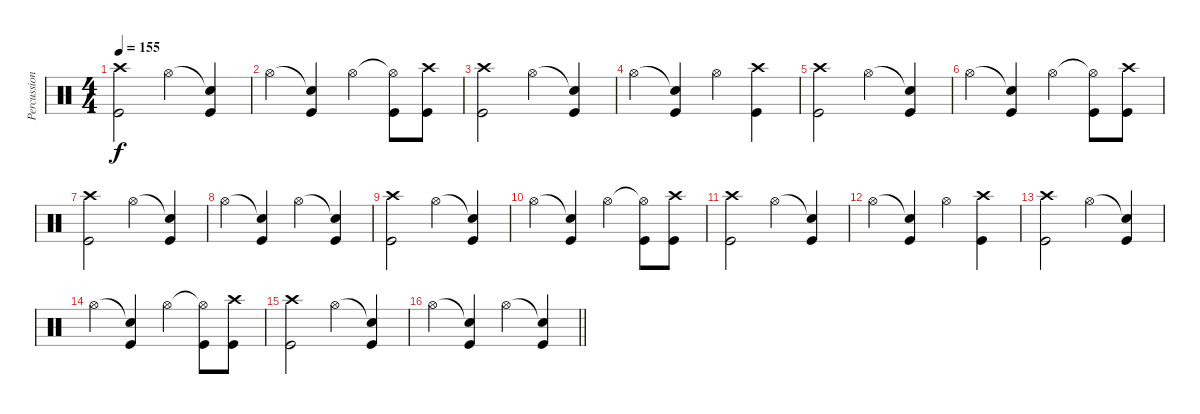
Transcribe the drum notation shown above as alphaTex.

\track ("Percussions" "Percussion") {instrument percussion}
\staff {score}
\articulation defaults
\ts (4 4)
\tempo 155
\clef neutral
\ks c
("Crash high (hit)" "Kick (hit)").2{dy f} "Hi-Hat (open)".4 ("Snare (hit)"{t} "Kick (hit)").4 |
"Hi-Hat (open)".4 ("Snare (hit)"{t} "Kick (hit)").4 "Hi-Hat (open)".4 ("Hi-Hat (open)"{t} "Kick (hit)").8 ("Crash high (hit)" "Kick (hit)").8 |
("Crash high (hit)" "Kick (hit)").2 "Hi-Hat (open)".4 ("Snare (hit)"{t} "Kick (hit)").4 |
"Hi-Hat (open)".4 ("Snare (hit)"{t} "Kick (hit)").4 "Hi-Hat (open)".4 ("Crash high (hit)" "Kick (hit)").4 |
("Crash high (hit)" "Kick (hit)").2 "Hi-Hat (open)".4 ("Snare (hit)"{t} "Kick (hit)").4 |
"Hi-Hat (open)".4 ("Snare (hit)"{t} "Kick (hit)").4 "Hi-Hat (open)".4 ("Hi-Hat (open)"{t} "Kick (hit)").8 ("Crash high (hit)" "Kick (hit)").8 |
("Crash high (hit)" "Kick (hit)").2 "Hi-Hat (open)".4 ("Snare (hit)"{t} "Kick (hit)").4 |
"Hi-Hat (open)".4 ("Snare (hit)"{t} "Kick (hit)").4 "Hi-Hat (open)".4 ("Snare (hit)"{t} "Kick (hit)").4 |
("Crash high (hit)" "Kick (hit)").2 "Hi-Hat (open)".4 ("Snare (hit)"{t} "Kick (hit)").4 |
"Hi-Hat (open)".4 ("Snare (hit)"{t} "Kick (hit)").4 "Hi-Hat (open)".4 ("Hi-Hat (open)"{t} "Kick (hit)").8 ("Crash high (hit)" "Kick (hit)").8 |
("Crash high (hit)" "Kick (hit)").2 "Hi-Hat (open)".4 ("Snare (hit)"{t} "Kick (hit)").4 |
"Hi-Hat (open)".4 ("Snare (hit)"{t} "Kick (hit)").4 "Hi-Hat (open)".4 ("Crash high (hit)" "Kick (hit)").4 |
("Crash high (hit)" "Kick (hit)").2 "Hi-Hat (open)".4 ("Snare (hit)"{t} "Kick (hit)").4 |
"Hi-Hat (open)".4 ("Snare (hit)"{t} "Kick (hit)").4 "Hi-Hat (open)".4 ("Hi-Hat (open)"{t} "Kick (hit)").8 ("Crash high (hit)" "Kick (hit)").8 |
("Crash high (hit)" "Kick (hit)").2 "Hi-Hat (open)".4 ("Snare (hit)"{t} "Kick (hit)").4 |
\barLineRight lightlight "Hi-Hat (open)".4
("Snare (hit)"{t} "Kick (hit)").4 "Hi-Hat (open)".4 ("Snare (hit)"{t} "Kick (hit)").4
